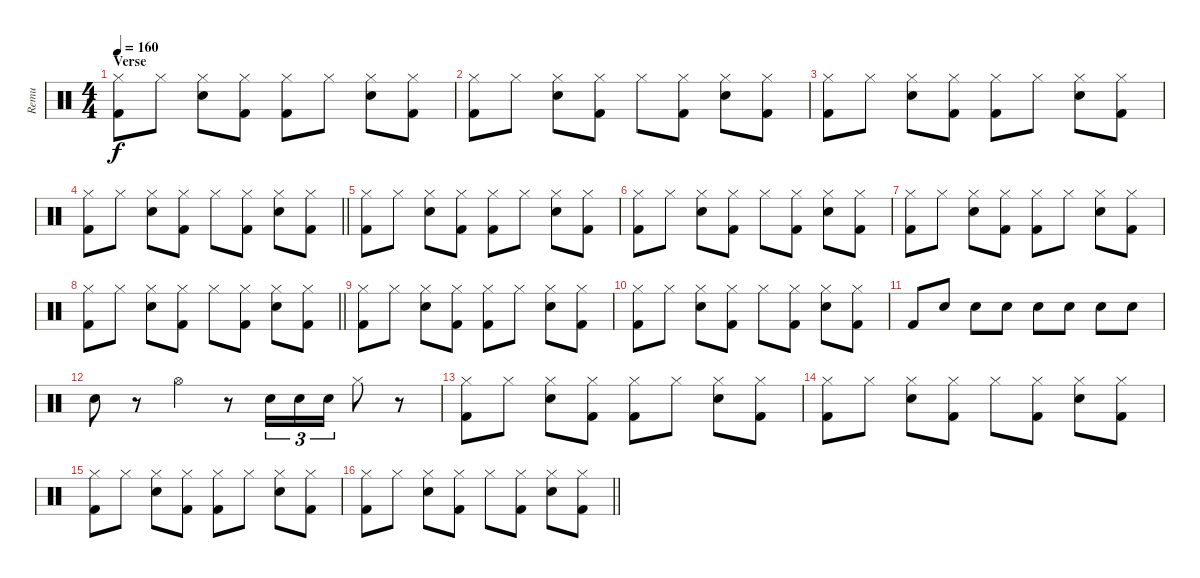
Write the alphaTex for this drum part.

\track ("Remu" "Remu") {instrument percussion}
\staff {score}
\articulation defaults
\ts (4 4)
\section ("" "Verse")
\tempo 160
\clef neutral
\ks c
("Hi-Hat (closed)" "Kick (hit) 2").8{dy f} "Hi-Hat (closed)".8 ("Hi-Hat (closed)" "Electric Snare (hit)").8 ("Hi-Hat (closed)" "Kick (hit) 2").8 ("Hi-Hat (closed)" "Kick (hit) 2").8 "Hi-Hat (closed)".8 ("Hi-Hat (closed)" "Electric Snare (hit)").8 ("Hi-Hat (closed)" "Kick (hit) 2").8 |
("Hi-Hat (closed)" "Kick (hit) 2").8 "Hi-Hat (closed)".8 ("Hi-Hat (closed)" "Electric Snare (hit)").8 ("Hi-Hat (closed)" "Kick (hit) 2").8 "Hi-Hat (closed)".8 ("Hi-Hat (closed)" "Kick (hit) 2").8 ("Hi-Hat (closed)" "Electric Snare (hit)").8 ("Hi-Hat (closed)" "Kick (hit) 2").8 |
("Hi-Hat (closed)" "Kick (hit) 2").8 "Hi-Hat (closed)".8 ("Hi-Hat (closed)" "Electric Snare (hit)").8 ("Hi-Hat (closed)" "Kick (hit) 2").8 ("Hi-Hat (closed)" "Kick (hit) 2").8 "Hi-Hat (closed)".8 ("Hi-Hat (closed)" "Electric Snare (hit)").8 ("Hi-Hat (closed)" "Kick (hit) 2").8 |
\barLineRight lightlight
("Hi-Hat (closed)" "Kick (hit) 2").8 "Hi-Hat (closed)".8 ("Hi-Hat (closed)" "Electric Snare (hit)").8 ("Hi-Hat (closed)" "Kick (hit) 2").8 "Hi-Hat (closed)".8 ("Hi-Hat (closed)" "Kick (hit) 2").8 ("Hi-Hat (closed)" "Electric Snare (hit)").8 ("Hi-Hat (closed)" "Kick (hit) 2").8 |
("Hi-Hat (closed)" "Kick (hit) 2").8 "Hi-Hat (closed)".8 ("Hi-Hat (closed)" "Electric Snare (hit)").8 ("Hi-Hat (closed)" "Kick (hit) 2").8 ("Hi-Hat (closed)" "Kick (hit) 2").8 "Hi-Hat (closed)".8 ("Hi-Hat (closed)" "Electric Snare (hit)").8 ("Hi-Hat (closed)" "Kick (hit) 2").8 |
("Hi-Hat (closed)" "Kick (hit) 2").8 "Hi-Hat (closed)".8 ("Hi-Hat (closed)" "Electric Snare (hit)").8 ("Hi-Hat (closed)" "Kick (hit) 2").8 "Hi-Hat (closed)".8 ("Hi-Hat (closed)" "Kick (hit) 2").8 ("Hi-Hat (closed)" "Electric Snare (hit)").8 ("Hi-Hat (closed)" "Kick (hit) 2").8 |
("Hi-Hat (closed)" "Kick (hit) 2").8 "Hi-Hat (closed)".8 ("Hi-Hat (closed)" "Electric Snare (hit)").8 ("Hi-Hat (closed)" "Kick (hit) 2").8 ("Hi-Hat (closed)" "Kick (hit) 2").8 "Hi-Hat (closed)".8 ("Hi-Hat (closed)" "Electric Snare (hit)").8 ("Hi-Hat (closed)" "Kick (hit) 2").8 |
\barLineRight lightlight
("Hi-Hat (closed)" "Kick (hit) 2").8 "Hi-Hat (closed)".8 ("Hi-Hat (closed)" "Electric Snare (hit)").8 ("Hi-Hat (closed)" "Kick (hit) 2").8 "Hi-Hat (closed)".8 ("Hi-Hat (closed)" "Kick (hit) 2").8 ("Hi-Hat (closed)" "Electric Snare (hit)").8 ("Hi-Hat (closed)" "Kick (hit) 2").8 |
("Hi-Hat (closed)" "Kick (hit) 2").8 "Hi-Hat (closed)".8 ("Hi-Hat (closed)" "Electric Snare (hit)").8 ("Hi-Hat (closed)" "Kick (hit) 2").8 ("Hi-Hat (closed)" "Kick (hit) 2").8 "Hi-Hat (closed)".8 ("Hi-Hat (closed)" "Electric Snare (hit)").8 ("Hi-Hat (closed)" "Kick (hit) 2").8 |
("Hi-Hat (closed)" "Kick (hit) 2").8 "Hi-Hat (closed)".8 ("Hi-Hat (closed)" "Electric Snare (hit)").8 ("Hi-Hat (closed)" "Kick (hit) 2").8 "Hi-Hat (closed)".8 ("Hi-Hat (closed)" "Kick (hit) 2").8 ("Hi-Hat (closed)" "Electric Snare (hit)").8 ("Hi-Hat (closed)" "Kick (hit) 2").8 |
"Kick (hit) 2".8 "Snare (hit) 2".8 "Snare (hit) 2".8 "Snare (hit) 2".8 "Snare (hit) 2".8 "Snare (hit) 2".8 "Snare (hit) 2".8 "Snare (hit) 2".8 |
"Snare (hit) 2".8 r.8 "Hi-Hat (open)".4 r.8 "Snare (hit) 2".16{tu (3 2)} "Snare (hit) 2".16{tu (3 2)} "Snare (hit) 2".16{tu (3 2)} "Hi-Hat (closed)".8 r.8 |
("Hi-Hat (closed)" "Kick (hit) 2").8 "Hi-Hat (closed)".8 ("Hi-Hat (closed)" "Electric Snare (hit)").8 ("Hi-Hat (closed)" "Kick (hit) 2").8 ("Hi-Hat (closed)" "Kick (hit) 2").8 "Hi-Hat (closed)".8 ("Hi-Hat (closed)" "Electric Snare (hit)").8 ("Hi-Hat (closed)" "Kick (hit) 2").8 |
("Hi-Hat (closed)" "Kick (hit) 2").8 "Hi-Hat (closed)".8 ("Hi-Hat (closed)" "Electric Snare (hit)").8 ("Hi-Hat (closed)" "Kick (hit) 2").8 "Hi-Hat (closed)".8 ("Hi-Hat (closed)" "Kick (hit) 2").8 ("Hi-Hat (closed)" "Electric Snare (hit)").8 ("Hi-Hat (closed)" "Kick (hit) 2").8 |
("Hi-Hat (closed)" "Kick (hit) 2").8 "Hi-Hat (closed)".8 ("Hi-Hat (closed)" "Electric Snare (hit)").8 ("Hi-Hat (closed)" "Kick (hit) 2").8 ("Hi-Hat (closed)" "Kick (hit) 2").8 "Hi-Hat (closed)".8 ("Hi-Hat (closed)" "Electric Snare (hit)").8 ("Hi-Hat (closed)" "Kick (hit) 2").8 |
\barLineRight lightlight
("Hi-Hat (closed)" "Kick (hit) 2").8 "Hi-Hat (closed)".8 ("Hi-Hat (closed)" "Electric Snare (hit)").8 ("Hi-Hat (closed)" "Kick (hit) 2").8 "Hi-Hat (closed)".8 ("Hi-Hat (closed)" "Kick (hit) 2").8 ("Hi-Hat (closed)" "Electric Snare (hit)").8 ("Hi-Hat (closed)" "Kick (hit) 2").8
